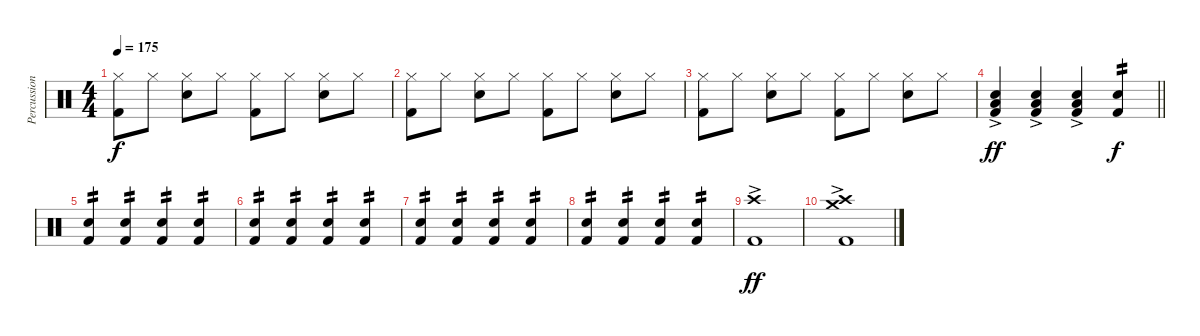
\track ("Percussion" "Percussion") {instrument percussion}
\staff {score}
\articulation defaults
\ts (4 4)
\tempo 175
\clef neutral
\ks c
("Hi-Hat (closed)" "Kick (hit) 2").8{dy f} "Hi-Hat (closed)".8 ("Hi-Hat (closed)" "Snare (hit) 2").8 "Hi-Hat (closed)".8 ("Hi-Hat (closed)" "Kick (hit) 2").8 "Hi-Hat (closed)".8 ("Hi-Hat (closed)" "Snare (hit) 2").8 "Hi-Hat (closed)".8 |
("Hi-Hat (closed)" "Kick (hit) 2").8 "Hi-Hat (closed)".8 ("Hi-Hat (closed)" "Snare (hit) 2").8 "Hi-Hat (closed)".8 ("Hi-Hat (closed)" "Kick (hit) 2").8 "Hi-Hat (closed)".8 ("Hi-Hat (closed)" "Snare (hit) 2").8 "Hi-Hat (closed)".8 |
("Hi-Hat (closed)" "Kick (hit) 2").8 "Hi-Hat (closed)".8 ("Hi-Hat (closed)" "Snare (hit) 2").8 "Hi-Hat (closed)".8 ("Hi-Hat (closed)" "Kick (hit) 2").8 "Hi-Hat (closed)".8 ("Hi-Hat (closed)" "Snare (hit) 2").8 "Hi-Hat (closed)".8 |
\barLineRight lightlight
("Snare (hit) 2"{ac} "Low Floor Tom (hit)" "Kick (hit) 2"{ac}).4{dy ff} ("Snare (hit) 2"{ac} "Low Floor Tom (hit)" "Kick (hit) 2"{ac}).4 ("Snare (hit) 2"{ac} "Low Floor Tom (hit)" "Kick (hit) 2"{ac}).4 ("Snare (hit) 2" "Kick (hit) 2").4{tp 2 dy f} |
("Snare (hit) 2" "Kick (hit) 2").4{tp 2} ("Snare (hit) 2" "Kick (hit) 2").4{tp 2} ("Snare (hit) 2" "Kick (hit) 2").4{tp 2} ("Snare (hit) 2" "Kick (hit) 2").4{tp 2} |
("Snare (hit) 2" "Kick (hit) 2").4{tp 2} ("Snare (hit) 2" "Kick (hit) 2").4{tp 2} ("Snare (hit) 2" "Kick (hit) 2").4{tp 2} ("Snare (hit) 2" "Kick (hit) 2").4{tp 2} |
("Snare (hit) 2" "Kick (hit) 2").4{tp 2} ("Snare (hit) 2" "Kick (hit) 2").4{tp 2} ("Snare (hit) 2" "Kick (hit) 2").4{tp 2} ("Snare (hit) 2" "Kick (hit) 2").4{tp 2} |
("Snare (hit) 2" "Kick (hit) 2").4{tp 2} ("Snare (hit) 2" "Kick (hit) 2").4{tp 2} ("Snare (hit) 2" "Kick (hit) 2").4{tp 2} ("Snare (hit) 2" "Kick (hit) 2").4{tp 2} |
("Crash high (hit)"{ac} "Kick (hit) 2"{ac}).1{dy ff} |
("Crash high (hit)"{ac} "Crash medium (hit)"{ac} "Kick (hit) 2"{ac}).1
